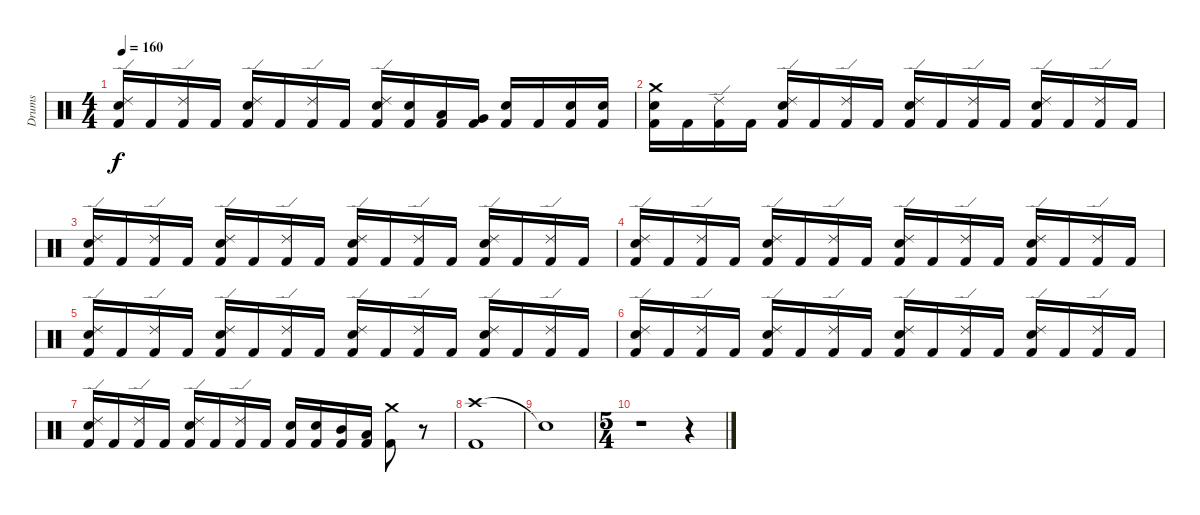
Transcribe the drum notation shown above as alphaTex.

\track ("Drums" "Drums") {instrument percussion}
\staff {score}
\articulation defaults
\ts (4 4)
\tempo 160
\clef neutral
\ks c
("Ride (edge) 2" "Kick (hit) 2" "Electric Snare (hit)").16{dy f} "Kick (hit) 2".16 ("Ride (edge) 2" "Kick (hit) 2").16 "Kick (hit) 2".16 ("Ride (edge) 2" "Kick (hit) 2" "Electric Snare (hit)").16 "Kick (hit) 2".16 ("Ride (edge) 2" "Kick (hit) 2").16 "Kick (hit) 2".16 ("Ride (edge) 2" "Kick (hit) 2" "Electric Snare (hit)").16 ("Electric Snare (hit)" "Kick (hit) 2").16 ("Low Tom (hit)" "Kick (hit) 2").16 ("Very Low Tom (hit)" "Kick (hit) 2").16 ("Kick (hit) 2" "Electric Snare (hit)").16 "Kick (hit) 2".16 ("Electric Snare (hit)" "Kick (hit) 2").16 ("Electric Snare (hit)" "Kick (hit) 2").16 |
("Crash medium (hit)" "Kick (hit) 2" "Electric Snare (hit)").16 "Kick (hit) 2".16 ("Ride (edge) 2" "Kick (hit) 2").16 "Kick (hit) 2".16 ("Ride (edge) 2" "Kick (hit) 2" "Electric Snare (hit)").16 "Kick (hit) 2".16 ("Ride (edge) 2" "Kick (hit) 2").16 "Kick (hit) 2".16 ("Ride (edge) 2" "Kick (hit) 2" "Electric Snare (hit)").16 "Kick (hit) 2".16 ("Ride (edge) 2" "Kick (hit) 2").16 "Kick (hit) 2".16 ("Ride (edge) 2" "Kick (hit) 2" "Electric Snare (hit)").16 "Kick (hit) 2".16 ("Ride (edge) 2" "Kick (hit) 2").16 "Kick (hit) 2".16 |
("Ride (edge) 2" "Kick (hit) 2" "Electric Snare (hit)").16 "Kick (hit) 2".16 ("Ride (edge) 2" "Kick (hit) 2").16 "Kick (hit) 2".16 ("Ride (edge) 2" "Kick (hit) 2" "Electric Snare (hit)").16 "Kick (hit) 2".16 ("Ride (edge) 2" "Kick (hit) 2").16 "Kick (hit) 2".16 ("Ride (edge) 2" "Kick (hit) 2" "Electric Snare (hit)").16 "Kick (hit) 2".16 ("Ride (edge) 2" "Kick (hit) 2").16 "Kick (hit) 2".16 ("Ride (edge) 2" "Kick (hit) 2" "Electric Snare (hit)").16 "Kick (hit) 2".16 ("Ride (edge) 2" "Kick (hit) 2").16 "Kick (hit) 2".16 |
("Ride (edge) 2" "Kick (hit) 2" "Electric Snare (hit)").16 "Kick (hit) 2".16 ("Ride (edge) 2" "Kick (hit) 2").16 "Kick (hit) 2".16 ("Ride (edge) 2" "Kick (hit) 2" "Electric Snare (hit)").16 "Kick (hit) 2".16 ("Ride (edge) 2" "Kick (hit) 2").16 "Kick (hit) 2".16 ("Ride (edge) 2" "Kick (hit) 2" "Electric Snare (hit)").16 "Kick (hit) 2".16 ("Ride (edge) 2" "Kick (hit) 2").16 "Kick (hit) 2".16 ("Ride (edge) 2" "Kick (hit) 2" "Electric Snare (hit)").16 "Kick (hit) 2".16 ("Ride (edge) 2" "Kick (hit) 2").16 "Kick (hit) 2".16 |
("Ride (edge) 2" "Kick (hit) 2" "Electric Snare (hit)").16 "Kick (hit) 2".16 ("Ride (edge) 2" "Kick (hit) 2").16 "Kick (hit) 2".16 ("Ride (edge) 2" "Kick (hit) 2" "Electric Snare (hit)").16 "Kick (hit) 2".16 ("Ride (edge) 2" "Kick (hit) 2").16 "Kick (hit) 2".16 ("Ride (edge) 2" "Kick (hit) 2" "Electric Snare (hit)").16 "Kick (hit) 2".16 ("Ride (edge) 2" "Kick (hit) 2").16 "Kick (hit) 2".16 ("Ride (edge) 2" "Kick (hit) 2" "Electric Snare (hit)").16 "Kick (hit) 2".16 ("Ride (edge) 2" "Kick (hit) 2").16 "Kick (hit) 2".16 |
("Ride (edge) 2" "Kick (hit) 2" "Electric Snare (hit)").16 "Kick (hit) 2".16 ("Ride (edge) 2" "Kick (hit) 2").16 "Kick (hit) 2".16 ("Ride (edge) 2" "Kick (hit) 2" "Electric Snare (hit)").16 "Kick (hit) 2".16 ("Ride (edge) 2" "Kick (hit) 2").16 "Kick (hit) 2".16 ("Ride (edge) 2" "Kick (hit) 2" "Electric Snare (hit)").16 "Kick (hit) 2".16 ("Ride (edge) 2" "Kick (hit) 2").16 "Kick (hit) 2".16 ("Ride (edge) 2" "Kick (hit) 2" "Electric Snare (hit)").16 "Kick (hit) 2".16 ("Ride (edge) 2" "Kick (hit) 2").16 "Kick (hit) 2".16 |
("Ride (edge) 2" "Kick (hit) 2" "Electric Snare (hit)").16 "Kick (hit) 2".16 ("Ride (edge) 2" "Kick (hit) 2").16 "Kick (hit) 2".16 ("Ride (edge) 2" "Kick (hit) 2" "Electric Snare (hit)").16 "Kick (hit) 2".16 ("Ride (edge) 2" "Kick (hit) 2").16 "Kick (hit) 2".16 ("Kick (hit) 2" "Electric Snare (hit)").16 ("Electric Snare (hit)" "Kick (hit) 2").16 ("Mid Tom (hit)" "Kick (hit) 2").16 ("Low Tom (hit)" "Kick (hit) 2").16 ("Kick (hit) 2" "Crash medium (hit)").8 r.8 |
("Crash high (hit)" "Kick (hit) 2").1 |
"Snare (hit)"{t}.1 |
\ts (5 4)
r.1 r.4
